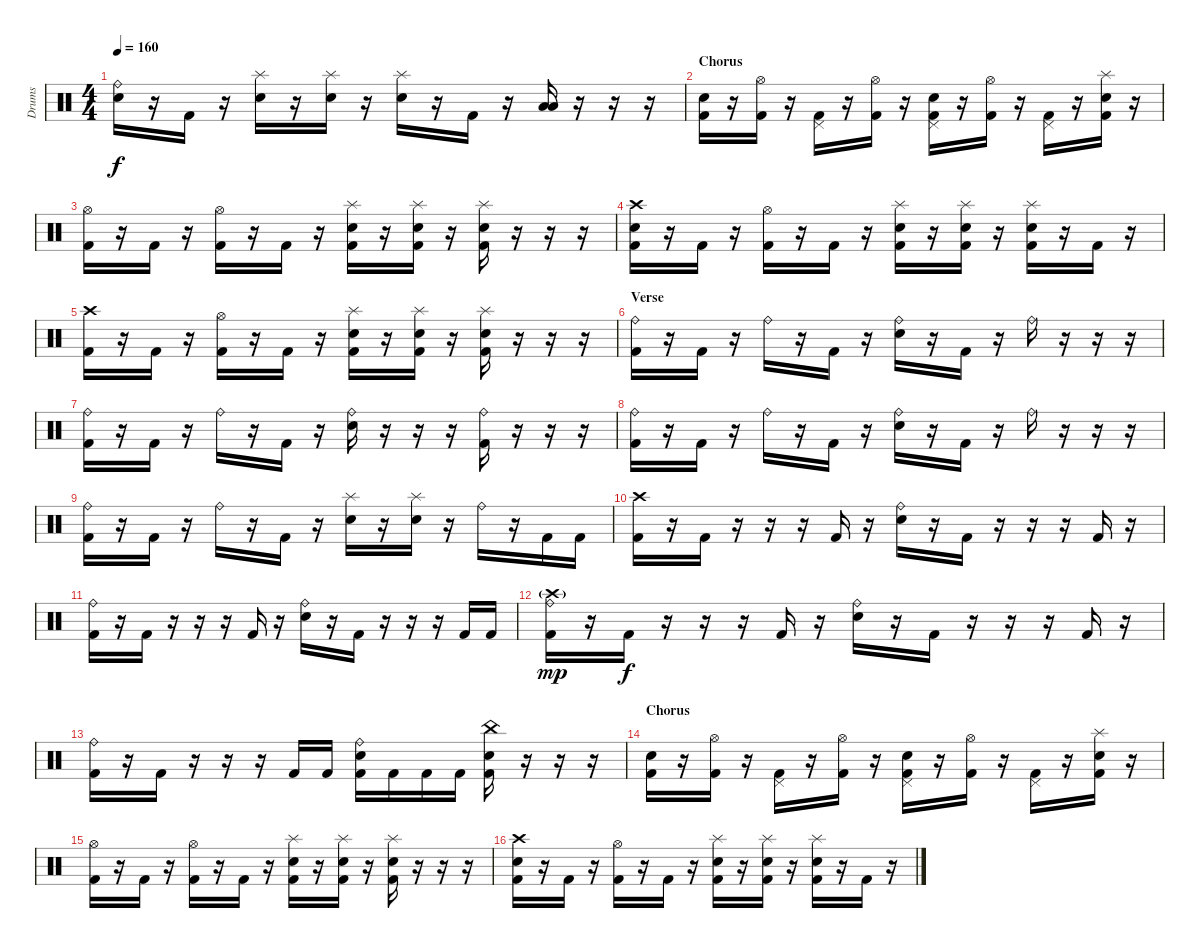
\track ("Drums" "Drums") {instrument percussion}
\staff {score}
\articulation defaults
\ts (4 4)
\tempo 160
\clef neutral
\ks c
("Ride (bell)" "Snare (hit) 2").16{dy f} r.16 "Kick (hit) 2".16 r.16 ("Splash (hit)" "Snare (hit) 2").16 r.16 ("Splash (hit)" "Snare (hit) 2").16 r.16 ("Splash (hit)" "Snare (hit) 2").16 r.16 "Kick (hit) 2".16 r.16 ("Low Tom (hit)" "Low Floor Tom (hit)").16 r.16 r.16 r.16 |
\section ("" "Chorus")
("Snare (hit) 2" "Kick (hit) 2").16 r.16 ("Hi-Hat (open)" "Kick (hit) 2").16 r.16 ("Pedal Hi-Hat (hit)" "Kick (hit) 2").16 r.16 ("Hi-Hat (open)" "Kick (hit) 2").16 r.16 ("Pedal Hi-Hat (hit)" "Snare (hit) 2" "Kick (hit) 2").16 r.16 ("Hi-Hat (open)" "Kick (hit) 2").16 r.16 ("Pedal Hi-Hat (hit)" "Kick (hit) 2").16 r.16 ("Splash (hit)" "Snare (hit) 2" "Kick (hit) 2").16 r.16 |
("Hi-Hat (open)" "Kick (hit) 2").16 r.16 "Kick (hit) 2".16 r.16 ("Hi-Hat (open)" "Kick (hit) 2").16 r.16 "Kick (hit) 2".16 r.16 ("Splash (hit)" "Snare (hit) 2" "Kick (hit) 2").16 r.16 ("Splash (hit)" "Snare (hit) 2" "Kick (hit) 2").16 r.16 ("Splash (hit)" "Snare (hit) 2" "Kick (hit) 2").16 r.16 r.16 r.16 |
("Crash high (hit)" "Snare (hit) 2" "Kick (hit) 2").16 r.16 "Kick (hit) 2".16 r.16 ("Hi-Hat (open)" "Kick (hit) 2").16 r.16 "Kick (hit) 2".16 r.16 ("Splash (hit)" "Snare (hit) 2" "Kick (hit) 2").16 r.16 ("Splash (hit)" "Snare (hit) 2" "Kick (hit) 2").16 r.16 ("Splash (hit)" "Snare (hit) 2" "Kick (hit) 2").16 r.16 "Kick (hit) 2".16 r.16 |
("Crash high (hit)" "Kick (hit) 2").16 r.16 "Kick (hit) 2".16 r.16 ("Hi-Hat (open)" "Kick (hit) 2").16 r.16 "Kick (hit) 2".16 r.16 ("Splash (hit)" "Snare (hit) 2" "Kick (hit) 2").16 r.16 ("Splash (hit)" "Snare (hit) 2" "Kick (hit) 2").16 r.16 ("Splash (hit)" "Snare (hit) 2" "Kick (hit) 2").16 r.16 r.16 r.16 |
\section ("" "Verse")
("Ride (bell)" "Kick (hit) 2").16 r.16 "Kick (hit) 2".16 r.16 "Ride (bell)".16 r.16 "Kick (hit) 2".16 r.16 ("Ride (bell)" "Snare (hit) 2").16 r.16 "Kick (hit) 2".16 r.16 "Ride (bell)".16 r.16 r.16 r.16 |
("Ride (bell)" "Kick (hit) 2").16 r.16 "Kick (hit) 2".16 r.16 "Ride (bell)".16 r.16 "Kick (hit) 2".16 r.16 ("Ride (bell)" "Snare (hit) 2").16 r.16 r.16 r.16 ("Ride (bell)" "Kick (hit) 2").16 r.16 r.16 r.16 |
("Ride (bell)" "Kick (hit) 2").16 r.16 "Kick (hit) 2".16 r.16 "Ride (bell)".16 r.16 "Kick (hit) 2".16 r.16 ("Ride (bell)" "Snare (hit) 2").16 r.16 "Kick (hit) 2".16 r.16 "Ride (bell)".16 r.16 r.16 r.16 |
("Ride (bell)" "Kick (hit) 2").16 r.16 "Kick (hit) 2".16 r.16 "Ride (bell)".16 r.16 "Kick (hit) 2".16 r.16 ("Splash (hit)" "Snare (hit) 2").16 r.16 ("Splash (hit)" "Snare (hit) 2").16 r.16 "Ride (bell)".16 r.16 "Kick (hit) 2".16 "Kick (hit) 2".16 |
("Crash high (hit)" "Kick (hit) 2").16 r.16 "Kick (hit) 2".16 r.16 r.16 r.16 "Kick (hit) 2".16 r.16 ("Ride (bell)" "Snare (hit) 2").16 r.16 "Kick (hit) 2".16 r.16 r.16 r.16 "Kick (hit) 2".16 r.16 |
("Ride (bell)" "Kick (hit) 2").16 r.16 "Kick (hit) 2".16 r.16 r.16 r.16 "Kick (hit) 2".16 r.16 ("Ride (bell)" "Snare (hit) 2").16 r.16 "Kick (hit) 2".16 r.16 r.16 r.16 "Kick (hit) 2".16 "Kick (hit) 2".16 |
("Ride (bell)" "Crash high (hit)"{g} "Kick (hit) 2").16{dy mp} r.16 "Kick (hit) 2".16{dy f} r.16 r.16 r.16 "Kick (hit) 2".16 r.16 ("Ride (bell)" "Snare (hit) 2").16 r.16 "Kick (hit) 2".16 r.16 r.16 r.16 "Kick (hit) 2".16 r.16 |
("Ride (bell)" "Kick (hit) 2").16 r.16 "Kick (hit) 2".16 r.16 r.16 r.16 "Kick (hit) 2".16 "Kick (hit) 2".16 ("Ride (bell)" "Snare (hit) 2" "Kick (hit) 2").16 "Kick (hit) 2".16 "Kick (hit) 2".16 "Kick (hit) 2".16 ("China (hit)" "Snare (hit) 2" "Kick (hit) 2").16 r.16 r.16 r.16 |
\section ("" "Chorus")
("Snare (hit) 2" "Kick (hit) 2").16 r.16 ("Hi-Hat (open)" "Kick (hit) 2").16 r.16 ("Pedal Hi-Hat (hit)" "Kick (hit) 2").16 r.16 ("Hi-Hat (open)" "Kick (hit) 2").16 r.16 ("Pedal Hi-Hat (hit)" "Snare (hit) 2" "Kick (hit) 2").16 r.16 ("Hi-Hat (open)" "Kick (hit) 2").16 r.16 ("Pedal Hi-Hat (hit)" "Kick (hit) 2").16 r.16 ("Splash (hit)" "Snare (hit) 2" "Kick (hit) 2").16 r.16 |
("Hi-Hat (open)" "Kick (hit) 2").16 r.16 "Kick (hit) 2".16 r.16 ("Hi-Hat (open)" "Kick (hit) 2").16 r.16 "Kick (hit) 2".16 r.16 ("Splash (hit)" "Snare (hit) 2" "Kick (hit) 2").16 r.16 ("Splash (hit)" "Snare (hit) 2" "Kick (hit) 2").16 r.16 ("Splash (hit)" "Snare (hit) 2" "Kick (hit) 2").16 r.16 r.16 r.16 |
("Crash high (hit)" "Snare (hit) 2" "Kick (hit) 2").16 r.16 "Kick (hit) 2".16 r.16 ("Hi-Hat (open)" "Kick (hit) 2").16 r.16 "Kick (hit) 2".16 r.16 ("Splash (hit)" "Snare (hit) 2" "Kick (hit) 2").16 r.16 ("Splash (hit)" "Snare (hit) 2" "Kick (hit) 2").16 r.16 ("Splash (hit)" "Snare (hit) 2" "Kick (hit) 2").16 r.16 "Kick (hit) 2".16 r.16
